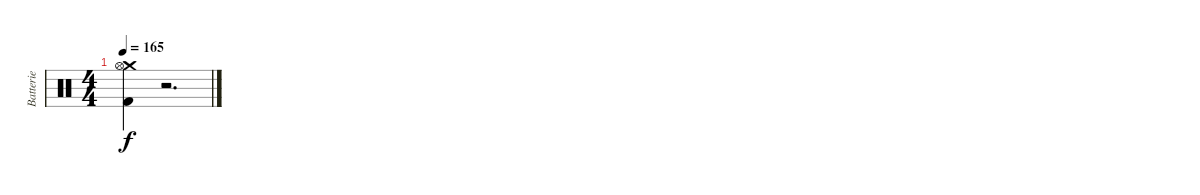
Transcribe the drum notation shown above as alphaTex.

\track ("Batterie" "Batterie") {instrument percussion}
\staff {score}
\articulation defaults
\ts (4 4)
\tempo 165
\clef neutral
\ks c
("Crash medium (hit)" "Hi-Hat (open)" "Kick (hit) 2").4{dy f} r.2{d}
